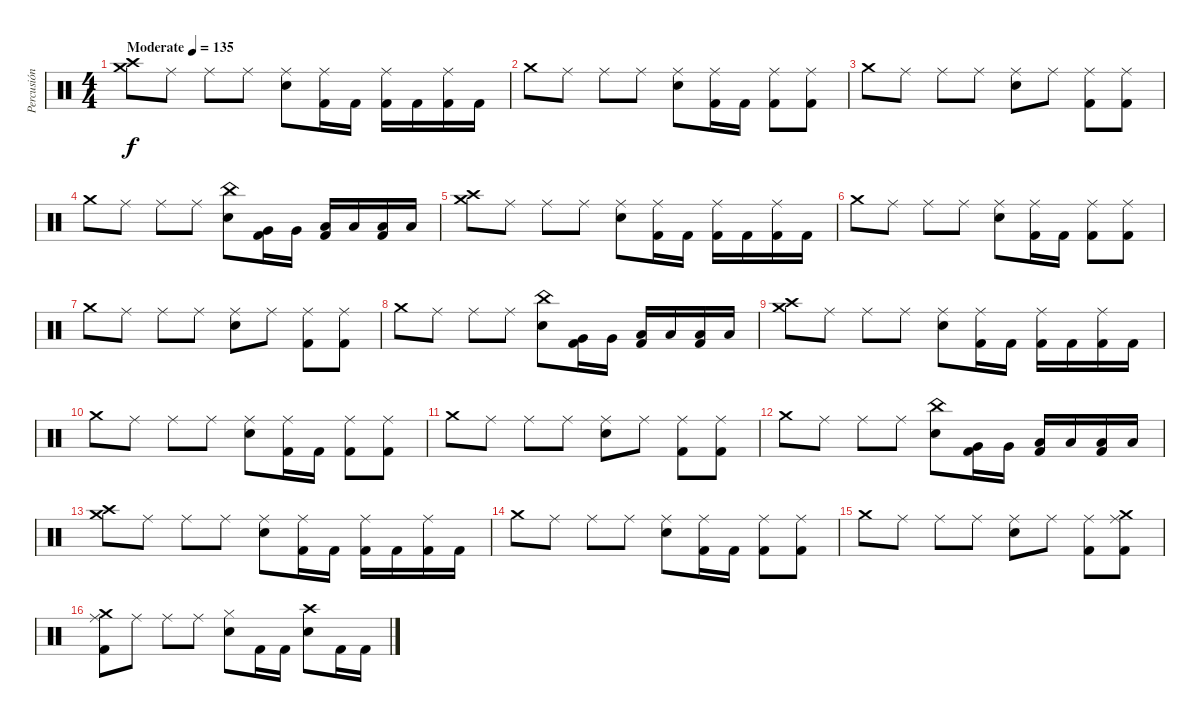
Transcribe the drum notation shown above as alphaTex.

\track ("Percusión" "Percusión") {instrument percussion}
\staff {score}
\articulation defaults
\ts (4 4)
\tempo (135 "Moderate")
\clef neutral
\ks c
("Crash high (hit)" "Crash medium (hit)").8{dy f} "Ride (middle)".8 "Ride (middle)".8 "Ride (middle)".8 ("Ride (middle)" "Snare (hit) 2").8 ("Ride (middle)" "Kick (hit) 2").16 "Kick (hit) 2".16 ("Ride (middle)" "Kick (hit) 2").16 "Kick (hit) 2".16 ("Ride (middle)" "Kick (hit) 2").16 "Kick (hit) 2".16 |
"Crash medium (hit)".8 "Ride (middle)".8 "Ride (middle)".8 "Ride (middle)".8 ("Ride (middle)" "Snare (hit) 2").8 ("Ride (middle)" "Kick (hit) 2").16 "Kick (hit) 2".16 ("Ride (middle)" "Kick (hit) 2").8 ("Ride (middle)" "Kick (hit) 2").8 |
"Crash medium (hit)".8 "Ride (middle)".8 "Ride (middle)".8 "Ride (middle)".8 ("Ride (middle)" "Snare (hit) 2").8 "Ride (middle)".8 ("Ride (middle)" "Kick (hit) 2").8 ("Ride (middle)" "Kick (hit) 2").8 |
"Crash medium (hit)".8 "Ride (middle)".8 "Ride (middle)".8 "Ride (middle)".8 ("Snare (hit) 2" "China (hit)").8 ("Kick (hit) 2" "Very Low Tom (hit)").16 "Very Low Tom (hit)".16 ("Kick (hit) 2" "Low Floor Tom (hit)").16 "Low Floor Tom (hit)".16 ("Kick (hit) 2" "Low Tom (hit)").16 "Low Tom (hit)".16 |
("Crash high (hit)" "Crash medium (hit)").8 "Ride (middle)".8 "Ride (middle)".8 "Ride (middle)".8 ("Ride (middle)" "Snare (hit) 2").8 ("Ride (middle)" "Kick (hit) 2").16 "Kick (hit) 2".16 ("Ride (middle)" "Kick (hit) 2").16 "Kick (hit) 2".16 ("Ride (middle)" "Kick (hit) 2").16 "Kick (hit) 2".16 |
"Crash medium (hit)".8 "Ride (middle)".8 "Ride (middle)".8 "Ride (middle)".8 ("Ride (middle)" "Snare (hit) 2").8 ("Ride (middle)" "Kick (hit) 2").16 "Kick (hit) 2".16 ("Ride (middle)" "Kick (hit) 2").8 ("Ride (middle)" "Kick (hit) 2").8 |
"Crash medium (hit)".8 "Ride (middle)".8 "Ride (middle)".8 "Ride (middle)".8 ("Ride (middle)" "Snare (hit) 2").8 "Ride (middle)".8 ("Ride (middle)" "Kick (hit) 2").8 ("Ride (middle)" "Kick (hit) 2").8 |
"Crash medium (hit)".8 "Ride (middle)".8 "Ride (middle)".8 "Ride (middle)".8 ("Snare (hit) 2" "China (hit)").8 ("Kick (hit) 2" "Very Low Tom (hit)").16 "Very Low Tom (hit)".16 ("Kick (hit) 2" "Low Floor Tom (hit)").16 "Low Floor Tom (hit)".16 ("Kick (hit) 2" "Low Tom (hit)").16 "Low Tom (hit)".16 |
("Crash high (hit)" "Crash medium (hit)").8 "Ride (middle)".8 "Ride (middle)".8 "Ride (middle)".8 ("Ride (middle)" "Snare (hit) 2").8 ("Ride (middle)" "Kick (hit) 2").16 "Kick (hit) 2".16 ("Ride (middle)" "Kick (hit) 2").16 "Kick (hit) 2".16 ("Ride (middle)" "Kick (hit) 2").16 "Kick (hit) 2".16 |
"Crash medium (hit)".8 "Ride (middle)".8 "Ride (middle)".8 "Ride (middle)".8 ("Ride (middle)" "Snare (hit) 2").8 ("Ride (middle)" "Kick (hit) 2").16 "Kick (hit) 2".16 ("Ride (middle)" "Kick (hit) 2").8 ("Ride (middle)" "Kick (hit) 2").8 |
"Crash medium (hit)".8 "Ride (middle)".8 "Ride (middle)".8 "Ride (middle)".8 ("Ride (middle)" "Snare (hit) 2").8 "Ride (middle)".8 ("Ride (middle)" "Kick (hit) 2").8 ("Ride (middle)" "Kick (hit) 2").8 |
"Crash medium (hit)".8 "Ride (middle)".8 "Ride (middle)".8 "Ride (middle)".8 ("Snare (hit) 2" "China (hit)").8 ("Kick (hit) 2" "Very Low Tom (hit)").16 "Very Low Tom (hit)".16 ("Kick (hit) 2" "Low Floor Tom (hit)").16 "Low Floor Tom (hit)".16 ("Kick (hit) 2" "Low Tom (hit)").16 "Low Tom (hit)".16 |
("Crash high (hit)" "Crash medium (hit)").8 "Ride (middle)".8 "Ride (middle)".8 "Ride (middle)".8 ("Ride (middle)" "Snare (hit) 2").8 ("Ride (middle)" "Kick (hit) 2").16 "Kick (hit) 2".16 ("Ride (middle)" "Kick (hit) 2").16 "Kick (hit) 2".16 ("Ride (middle)" "Kick (hit) 2").16 "Kick (hit) 2".16 |
"Crash medium (hit)".8 "Ride (middle)".8 "Ride (middle)".8 "Ride (middle)".8 ("Ride (middle)" "Snare (hit) 2").8 ("Ride (middle)" "Kick (hit) 2").16 "Kick (hit) 2".16 ("Ride (middle)" "Kick (hit) 2").8 ("Ride (middle)" "Kick (hit) 2").8 |
"Crash medium (hit)".8 "Ride (middle)".8 "Ride (middle)".8 "Ride (middle)".8 ("Ride (middle)" "Snare (hit) 2").8 "Ride (middle)".8 ("Ride (middle)" "Kick (hit) 2").8 ("Ride (middle)" "Crash medium (hit)" "Kick (hit) 2").8 |
("Ride (middle)" "Crash medium (hit)" "Kick (hit) 2").8 "Ride (middle)".8 "Ride (middle)".8 "Ride (middle)".8 ("Hi-Hat (closed)" "Snare (hit) 2").8 "Kick (hit) 2".16 "Kick (hit) 2".16 ("Snare (hit) 2" "Crash high (hit)").8 "Kick (hit) 2".16 "Kick (hit) 2".16
